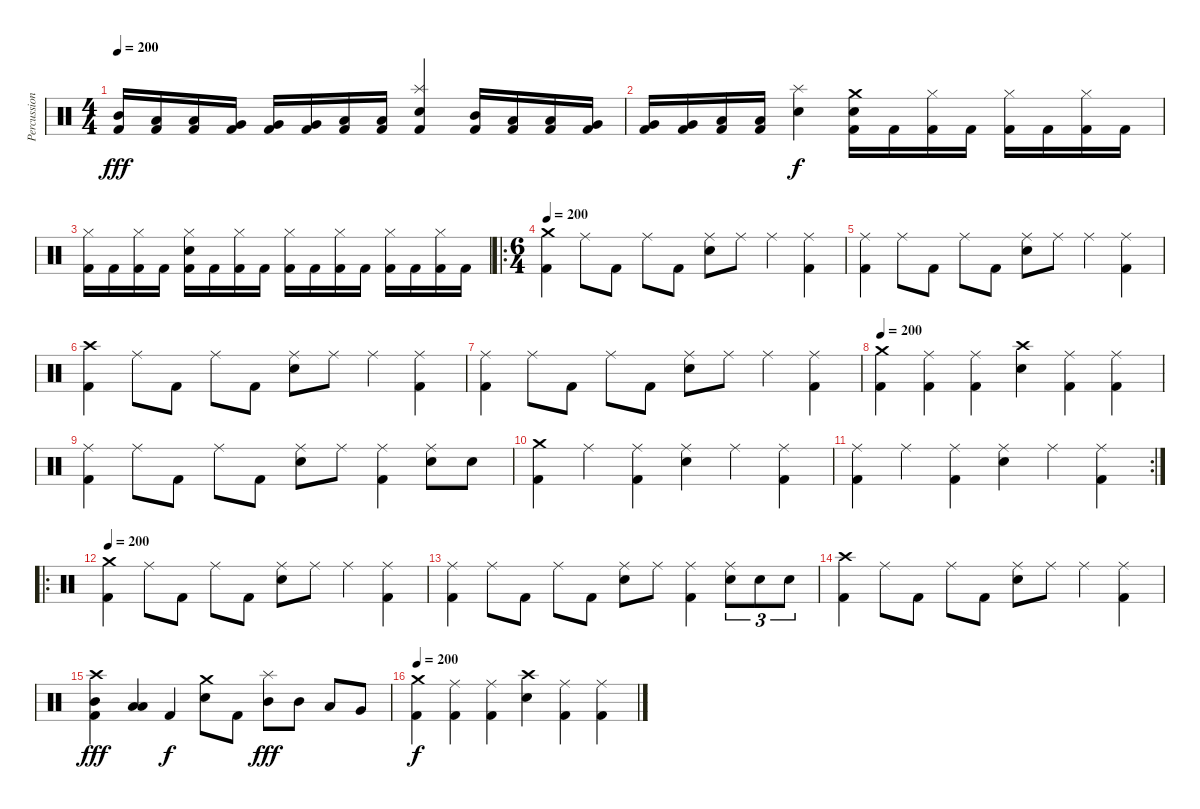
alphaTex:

\track ("Percussions" "Percussion") {instrument percussion}
\staff {score}
\articulation defaults
\ts (4 4)
\tempo 200
\clef neutral
\ks c
("Mid Tom (hit)" "Kick (hit) 2").16{dy fff} ("Low Tom (hit)" "Kick (hit) 2").16 ("Low Tom (hit)" "Kick (hit) 2").16 ("Very Low Tom (hit)" "Kick (hit) 2").16 ("Very Low Tom (hit)" "Kick (hit) 2").16 ("Very Low Tom (hit)" "Kick (hit) 2").16 ("Low Floor Tom (hit)" "Kick (hit) 2").16 ("Low Floor Tom (hit)" "Kick (hit) 2").16 ("Splash (hit)" "Electric Snare (hit)" "Kick (hit) 2").4 ("Mid Tom (hit)" "Kick (hit) 2").16 ("Low Tom (hit)" "Kick (hit) 2").16 ("Low Tom (hit)" "Kick (hit) 2").16 ("Very Low Tom (hit)" "Kick (hit) 2").16 |
("Very Low Tom (hit)" "Kick (hit) 2").16 ("Very Low Tom (hit)" "Kick (hit) 2").16 ("Low Floor Tom (hit)" "Kick (hit) 2").16 ("Low Floor Tom (hit)" "Kick (hit) 2").16 ("Splash (hit)" "Electric Snare (hit)").4{dy f} ("Crash medium (hit)" "Electric Snare (hit)" "Kick (hit) 2").16 "Kick (hit) 2".16 ("Hi-Hat (closed)" "Kick (hit) 2").16 "Kick (hit) 2".16 ("Hi-Hat (closed)" "Kick (hit) 2").16 "Kick (hit) 2".16 ("Hi-Hat (closed)" "Kick (hit) 2").16 "Kick (hit) 2".16 |
("Hi-Hat (closed)" "Kick (hit) 2").16 "Kick (hit) 2".16 ("Hi-Hat (closed)" "Kick (hit) 2").16 "Kick (hit) 2".16 ("Hi-Hat (closed)" "Electric Snare (hit)" "Kick (hit) 2").16 "Kick (hit) 2".16 ("Hi-Hat (closed)" "Kick (hit) 2").16 "Kick (hit) 2".16 ("Hi-Hat (closed)" "Kick (hit) 2").16 "Kick (hit) 2".16 ("Hi-Hat (closed)" "Kick (hit) 2").16 "Kick (hit) 2".16 ("Hi-Hat (closed)" "Kick (hit) 2").16 "Kick (hit) 2".16 ("Hi-Hat (closed)" "Kick (hit) 2").16 "Kick (hit) 2".16 |
\ro
\ts (6 4)
\tempo 200
("Crash medium (hit)" "Kick (hit) 2").4 "Ride (middle)".8 "Kick (hit) 2".8 "Ride (middle)".8 "Kick (hit) 2".8 ("Ride (middle)" "Electric Snare (hit)").8 "Ride (middle)".8 "Ride (middle)".4 ("Ride (middle)" "Kick (hit) 2").4 |
("Ride (middle)" "Kick (hit) 2").4 "Ride (middle)".8 "Kick (hit) 2".8 "Ride (middle)".8 "Kick (hit) 2".8 ("Ride (middle)" "Electric Snare (hit)").8 "Ride (middle)".8 "Ride (middle)".4 ("Ride (middle)" "Kick (hit) 2").4 |
("Crash high (hit)" "Kick (hit) 2").4 "Ride (middle)".8 "Kick (hit) 2".8 "Ride (middle)".8 "Kick (hit) 2".8 ("Ride (middle)" "Electric Snare (hit)").8 "Ride (middle)".8 "Ride (middle)".4 ("Ride (middle)" "Kick (hit) 2").4 |
("Ride (middle)" "Kick (hit) 2").4 "Ride (middle)".8 "Kick (hit) 2".8 "Ride (middle)".8 "Kick (hit) 2".8 ("Ride (middle)" "Electric Snare (hit)").8 "Ride (middle)".8 "Ride (middle)".4 ("Ride (middle)" "Kick (hit) 2").4 |
\tempo 200
("Crash medium (hit)" "Kick (hit) 2").4 ("Ride (middle)" "Kick (hit) 2").4 ("Ride (middle)" "Kick (hit) 2").4 ("Crash high (hit)" "Electric Snare (hit)").4 ("Ride (middle)" "Kick (hit) 2").4 ("Ride (middle)" "Kick (hit) 2").4 |
("Ride (middle)" "Kick (hit) 2").4 "Ride (middle)".8 "Kick (hit) 2".8 "Ride (middle)".8 "Kick (hit) 2".8 ("Ride (middle)" "Electric Snare (hit)").8 "Ride (middle)".8 ("Ride (middle)" "Kick (hit) 2").4 ("Ride (middle)" "Electric Snare (hit)").8 "Electric Snare (hit)".8 |
("Crash medium (hit)" "Kick (hit) 2").4 "Ride (middle)".4 ("Ride (middle)" "Kick (hit) 2").4 ("Ride (middle)" "Electric Snare (hit)").4 "Ride (middle)".4 ("Ride (middle)" "Kick (hit) 2").4 |
\rc 2
("Ride (middle)" "Kick (hit) 2").4 "Ride (middle)".4 ("Ride (middle)" "Kick (hit) 2").4 ("Ride (middle)" "Electric Snare (hit)").4 "Ride (middle)".4 ("Ride (middle)" "Kick (hit) 2").4 |
\ro
\tempo 200
("Crash medium (hit)" "Kick (hit) 2").4 "Ride (middle)".8 "Kick (hit) 2".8 "Ride (middle)".8 "Kick (hit) 2".8 ("Ride (middle)" "Electric Snare (hit)").8 "Ride (middle)".8 "Ride (middle)".4 ("Ride (middle)" "Kick (hit) 2").4 |
("Ride (middle)" "Kick (hit) 2").4 "Ride (middle)".8 "Kick (hit) 2".8 "Ride (middle)".8 "Kick (hit) 2".8 ("Ride (middle)" "Electric Snare (hit)").8 "Ride (middle)".8 ("Ride (middle)" "Kick (hit) 2").4 ("Ride (middle)" "Electric Snare (hit)").8{tu (3 2)} "Electric Snare (hit)".8{tu (3 2)} "Electric Snare (hit)".8{tu (3 2)} |
("Crash high (hit)" "Kick (hit) 2").4 "Ride (middle)".8 "Kick (hit) 2".8 "Ride (middle)".8 "Kick (hit) 2".8 ("Ride (middle)" "Electric Snare (hit)").8 "Ride (middle)".8 "Ride (middle)".4 ("Ride (middle)" "Kick (hit) 2").4 |
("Crash high (hit)" "Mid Tom (hit)" "Kick (hit) 2").4{dy fff} ("Low Tom (hit)" "Low Tom (hit)").4 "Kick (hit) 2".4{dy f} ("Crash medium (hit)" "Electric Snare (hit)").8 "Kick (hit) 2".8 ("Splash (hit)" "Mid Tom (hit)").8{dy fff} "Mid Tom (hit)".8 "Low Tom (hit)".8 "Very Low Tom (hit)".8 |
\tempo 200
("Crash medium (hit)" "Kick (hit) 2").4{dy f} ("Ride (middle)" "Kick (hit) 2").4 ("Ride (middle)" "Kick (hit) 2").4 ("Crash high (hit)" "Electric Snare (hit)").4 ("Ride (middle)" "Kick (hit) 2").4 ("Ride (middle)" "Kick (hit) 2").4
